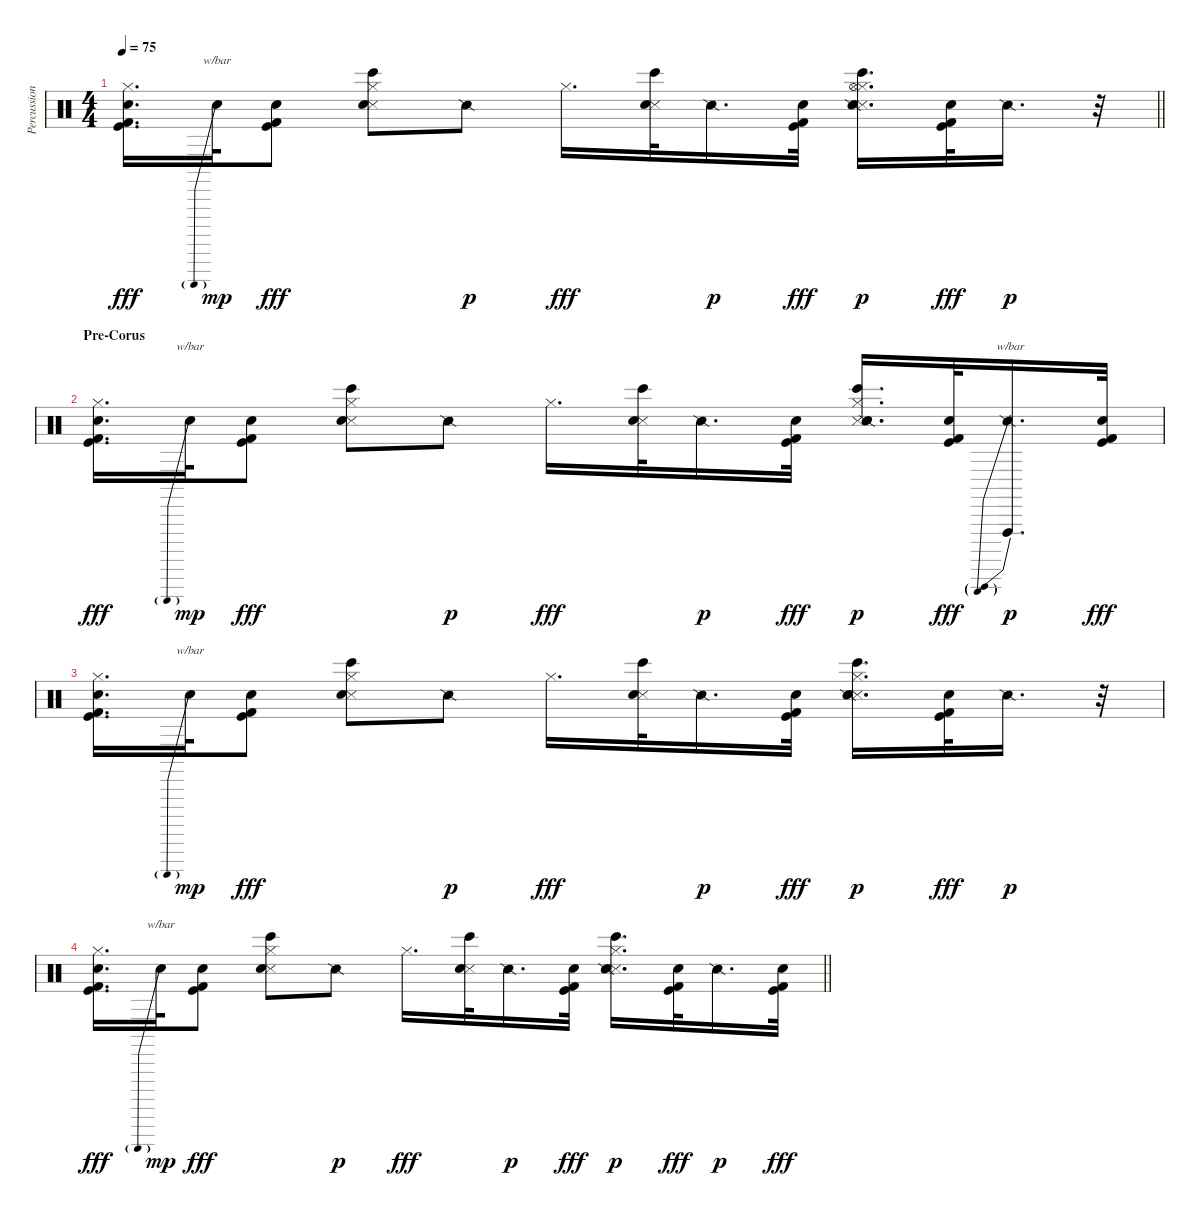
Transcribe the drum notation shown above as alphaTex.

\track ("Percussion" "Percussion") {instrument percussion}
\staff {score}
\articulation defaults
\ts (4 4)
\tempo 75
\clef neutral
\barLineRight lightlight
\ks c
("Hi-Hat (closed)" "Snare (hit) 2" "Kick (hit)" "Kick (hit) 2").16{d dy fff} "Hand Clap (hit)".32{tbe (predive default 0 24 60 24) dy mp} ("Snare (hit) 2" "Kick (hit)" "Kick (hit) 2").8{dy fff} ("Hi-Hat (closed)" "Snare (side stick) 3" "Snare (hit) 2" "Bongo High (hit)").8 "Snare (side stick) 2".8{dy p} "Hi-Hat (closed)".16{d dy fff} ("Snare (side stick) 3" "Snare (hit) 2" "Bongo High (hit)").32 "Snare (side stick) 2".16{d dy p} ("Snare (hit) 2" "Kick (hit)" "Kick (hit) 2").32{dy fff} ("Hi-Hat (closed)" "Snare (side stick) 3" "Snare (hit) 2" "Bongo High (hit)" "Snare (side stick) 2" "Hi-Hat (open)").16{d dy p} ("Snare (hit) 2" "Kick (hit)" "Kick (hit) 2").32{dy fff} "Snare (side stick) 2".16{d dy p} r.32 |
\section ("" "Pre-Corus")
("Hi-Hat (closed)" "Snare (hit) 2" "Kick (hit)" "Kick (hit) 2").16{d dy fff} "Hand Clap (hit)".32{tbe (predive default 0 24 60 24) dy mp} ("Snare (hit) 2" "Kick (hit)" "Kick (hit) 2").8{dy fff} ("Hi-Hat (closed)" "Snare (side stick) 3" "Snare (hit) 2" "Bongo High (hit)").8 "Snare (side stick) 2".8{dy p} "Hi-Hat (closed)".16{d dy fff} ("Snare (side stick) 3" "Snare (hit) 2" "Bongo High (hit)").32 "Snare (side stick) 2".16{d dy p} ("Snare (hit) 2" "Kick (hit)" "Kick (hit) 2").32{dy fff} ("Hi-Hat (closed)" "Snare (side stick) 3" "Snare (hit) 2" "Bongo High (hit)" "Snare (side stick) 2").16{d dy p} ("Snare (hit) 2" "Kick (hit)" "Kick (hit) 2").32{dy fff} ("Snare (side stick) 2" "Vibraslap (hit)").16{d tbe (predive default 0 20 60 20) dy p} ("Snare (hit) 2" "Kick (hit)" "Kick (hit) 2").32{dy fff} |
("Hi-Hat (closed)" "Snare (hit) 2" "Kick (hit)" "Kick (hit) 2").16{d} "Hand Clap (hit)".32{tbe (predive default 0 24 60 24) dy mp} ("Snare (hit) 2" "Kick (hit)" "Kick (hit) 2").8{dy fff} ("Hi-Hat (closed)" "Snare (side stick) 3" "Snare (hit) 2" "Bongo High (hit)").8 "Snare (side stick) 2".8{dy p} "Hi-Hat (closed)".16{d dy fff} ("Snare (side stick) 3" "Snare (hit) 2" "Bongo High (hit)").32 "Snare (side stick) 2".16{d dy p} ("Snare (hit) 2" "Kick (hit)" "Kick (hit) 2").32{dy fff} ("Hi-Hat (closed)" "Snare (side stick) 3" "Snare (hit) 2" "Bongo High (hit)" "Snare (side stick) 2").16{d dy p} ("Snare (hit) 2" "Kick (hit)" "Kick (hit) 2").32{dy fff} "Snare (side stick) 2".16{d dy p} r.32 |
\barLineRight lightlight
("Hi-Hat (closed)" "Snare (hit) 2" "Kick (hit)" "Kick (hit) 2").16{d dy fff} "Hand Clap (hit)".32{tbe (predive default 0 24 60 24) dy mp} ("Snare (hit) 2" "Kick (hit)" "Kick (hit) 2").8{dy fff} ("Hi-Hat (closed)" "Snare (side stick) 3" "Snare (hit) 2" "Bongo High (hit)").8 "Snare (side stick) 2".8{dy p} "Hi-Hat (closed)".16{d dy fff} ("Snare (side stick) 3" "Snare (hit) 2" "Bongo High (hit)").32 "Snare (side stick) 2".16{d dy p} ("Snare (hit) 2" "Kick (hit)" "Kick (hit) 2").32{dy fff} ("Hi-Hat (closed)" "Snare (side stick) 3" "Snare (hit) 2" "Bongo High (hit)" "Snare (side stick) 2").16{d dy p} ("Snare (hit) 2" "Kick (hit)" "Kick (hit) 2").32{dy fff} "Snare (side stick) 2".16{d dy p} ("Snare (hit) 2" "Kick (hit)" "Kick (hit) 2").32{dy fff}
